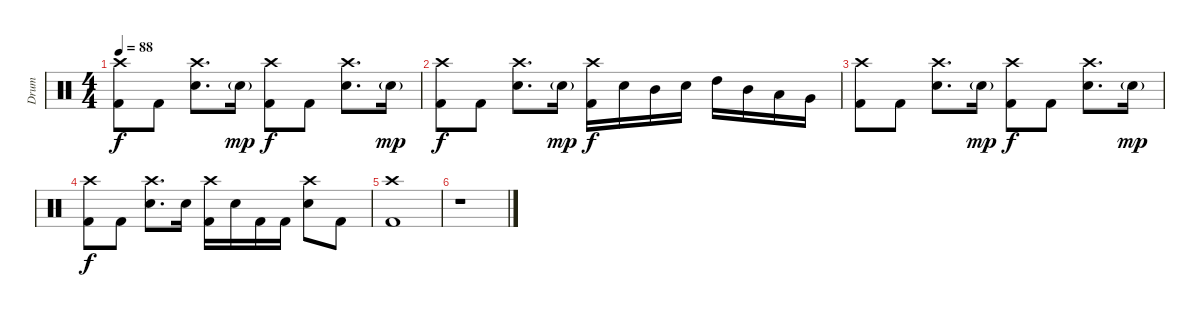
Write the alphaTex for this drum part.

\track ("Drum" "Drum") {instrument percussion}
\staff {score}
\articulation defaults
\ts (4 4)
\tempo 88
\clef neutral
\ks c
("Crash high (hit)" "Kick (hit) 2").8{dy f} "Kick (hit) 2".8 ("Crash high (hit)" "Electric Snare (hit)").8{d} "Electric Snare (hit)"{g}.16{dy mp} ("Crash high (hit)" "Kick (hit) 2").8{dy f} "Kick (hit) 2".8 ("Crash high (hit)" "Electric Snare (hit)").8{d} "Electric Snare (hit)"{g}.16{dy mp} |
("Crash high (hit)" "Kick (hit) 2").8{dy f} "Kick (hit) 2".8 ("Crash high (hit)" "Electric Snare (hit)").8{d} "Electric Snare (hit)"{g}.16{dy mp} ("Crash high (hit)" "Kick (hit) 2").16{dy f} "Electric Snare (hit)".16 "Mid Tom (hit)".16 "Electric Snare (hit)".16 "High Tom (hit)".16 "Mid Tom (hit)".16 "Low Tom (hit)".16 "Very Low Tom (hit)".16 |
("Crash high (hit)" "Kick (hit) 2").8 "Kick (hit) 2".8 ("Crash high (hit)" "Electric Snare (hit)").8{d} "Electric Snare (hit)"{g}.16{dy mp} ("Crash high (hit)" "Kick (hit) 2").8{dy f} "Kick (hit) 2".8 ("Crash high (hit)" "Electric Snare (hit)").8{d} "Electric Snare (hit)"{g}.16{dy mp} |
("Crash high (hit)" "Kick (hit) 2").8{dy f} "Kick (hit) 2".8 ("Crash high (hit)" "Electric Snare (hit)").8{d} "Electric Snare (hit)".16 ("Crash high (hit)" "Kick (hit) 2").16 "Electric Snare (hit)".16 "Kick (hit) 2".16 "Kick (hit) 2".16 ("Crash high (hit)" "Electric Snare (hit)").8 "Kick (hit) 2".8 |
("Crash high (hit)" "Kick (hit) 2").1 |
r.1
